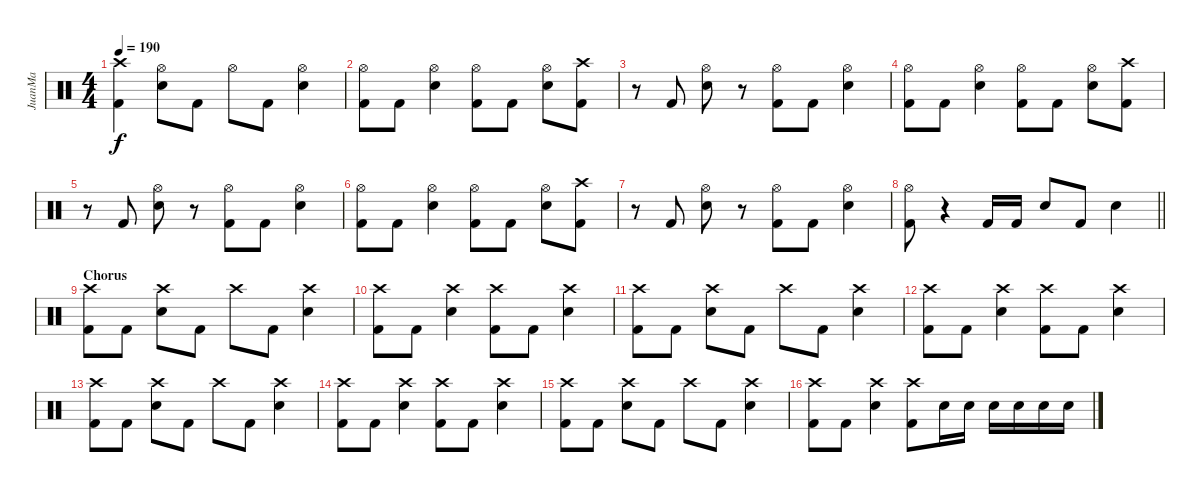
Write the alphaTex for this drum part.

\track ("JuanMa" "JuanMa") {instrument percussion}
\staff {score}
\articulation defaults
\ts (4 4)
\tempo 190
\clef neutral
\ks c
("Crash high (hit)" "Kick (hit) 2").4{dy f} ("Hi-Hat (open)" "Electric Snare (hit)").8 "Kick (hit) 2".8 "Hi-Hat (open)".8 "Kick (hit) 2".8 ("Hi-Hat (open)" "Electric Snare (hit)").4 |
("Hi-Hat (open)" "Kick (hit) 2").8 "Kick (hit) 2".8 ("Hi-Hat (open)" "Electric Snare (hit)").4 ("Hi-Hat (open)" "Kick (hit) 2").8 "Kick (hit) 2".8 ("Hi-Hat (open)" "Electric Snare (hit)").8 ("Crash high (hit)" "Kick (hit) 2").8 |
r.8 "Kick (hit) 2".8 ("Hi-Hat (open)" "Electric Snare (hit)").8 r.8 ("Hi-Hat (open)" "Kick (hit) 2").8 "Kick (hit) 2".8 ("Hi-Hat (open)" "Electric Snare (hit)").4 |
("Hi-Hat (open)" "Kick (hit) 2").8 "Kick (hit) 2".8 ("Hi-Hat (open)" "Electric Snare (hit)").4 ("Hi-Hat (open)" "Kick (hit) 2").8 "Kick (hit) 2".8 ("Hi-Hat (open)" "Electric Snare (hit)").8 ("Crash high (hit)" "Kick (hit) 2").8 |
r.8 "Kick (hit) 2".8 ("Hi-Hat (open)" "Electric Snare (hit)").8 r.8 ("Hi-Hat (open)" "Kick (hit) 2").8 "Kick (hit) 2".8 ("Hi-Hat (open)" "Electric Snare (hit)").4 |
("Hi-Hat (open)" "Kick (hit) 2").8 "Kick (hit) 2".8 ("Hi-Hat (open)" "Electric Snare (hit)").4 ("Hi-Hat (open)" "Kick (hit) 2").8 "Kick (hit) 2".8 ("Hi-Hat (open)" "Electric Snare (hit)").8 ("Crash high (hit)" "Kick (hit) 2").8 |
r.8 "Kick (hit) 2".8 ("Hi-Hat (open)" "Electric Snare (hit)").8 r.8 ("Hi-Hat (open)" "Kick (hit) 2").8 "Kick (hit) 2".8 ("Hi-Hat (open)" "Electric Snare (hit)").4 |
\barLineRight lightlight
("Hi-Hat (open)" "Kick (hit) 2").8 r.4{volume 0} "Kick (hit) 2".16{volume 13} "Kick (hit) 2".16 "Electric Snare (hit)".8 "Kick (hit) 2".8 "Electric Snare (hit)".4 |
\section ("" "Chorus")
("Crash high (hit)" "Kick (hit) 2").8 "Kick (hit) 2".8 ("Crash high (hit)" "Electric Snare (hit)").8 "Kick (hit) 2".8 "Crash high (hit)".8 "Kick (hit) 2".8 ("Crash high (hit)" "Electric Snare (hit)").4 |
("Crash high (hit)" "Kick (hit) 2").8 "Kick (hit) 2".8 ("Crash high (hit)" "Electric Snare (hit)").4 ("Crash high (hit)" "Kick (hit) 2").8 "Kick (hit) 2".8 ("Crash high (hit)" "Electric Snare (hit)").4 |
("Crash high (hit)" "Kick (hit) 2").8 "Kick (hit) 2".8 ("Crash high (hit)" "Electric Snare (hit)").8 "Kick (hit) 2".8 "Crash high (hit)".8 "Kick (hit) 2".8 ("Crash high (hit)" "Electric Snare (hit)").4 |
("Crash high (hit)" "Kick (hit) 2").8 "Kick (hit) 2".8 ("Crash high (hit)" "Electric Snare (hit)").4 ("Crash high (hit)" "Kick (hit) 2").8 "Kick (hit) 2".8 ("Crash high (hit)" "Electric Snare (hit)").4 |
("Crash high (hit)" "Kick (hit) 2").8 "Kick (hit) 2".8 ("Crash high (hit)" "Electric Snare (hit)").8 "Kick (hit) 2".8 "Crash high (hit)".8 "Kick (hit) 2".8 ("Crash high (hit)" "Electric Snare (hit)").4 |
("Crash high (hit)" "Kick (hit) 2").8 "Kick (hit) 2".8 ("Crash high (hit)" "Electric Snare (hit)").4 ("Crash high (hit)" "Kick (hit) 2").8 "Kick (hit) 2".8 ("Crash high (hit)" "Electric Snare (hit)").4 |
("Crash high (hit)" "Kick (hit) 2").8 "Kick (hit) 2".8 ("Crash high (hit)" "Electric Snare (hit)").8 "Kick (hit) 2".8 "Crash high (hit)".8 "Kick (hit) 2".8 ("Crash high (hit)" "Electric Snare (hit)").4 |
("Crash high (hit)" "Kick (hit) 2").8 "Kick (hit) 2".8 ("Crash high (hit)" "Electric Snare (hit)").4 ("Crash high (hit)" "Kick (hit) 2").8 "Electric Snare (hit)".16 "Electric Snare (hit)".16 "Electric Snare (hit)".16 "Electric Snare (hit)".16 "Electric Snare (hit)".16 "Electric Snare (hit)".16
